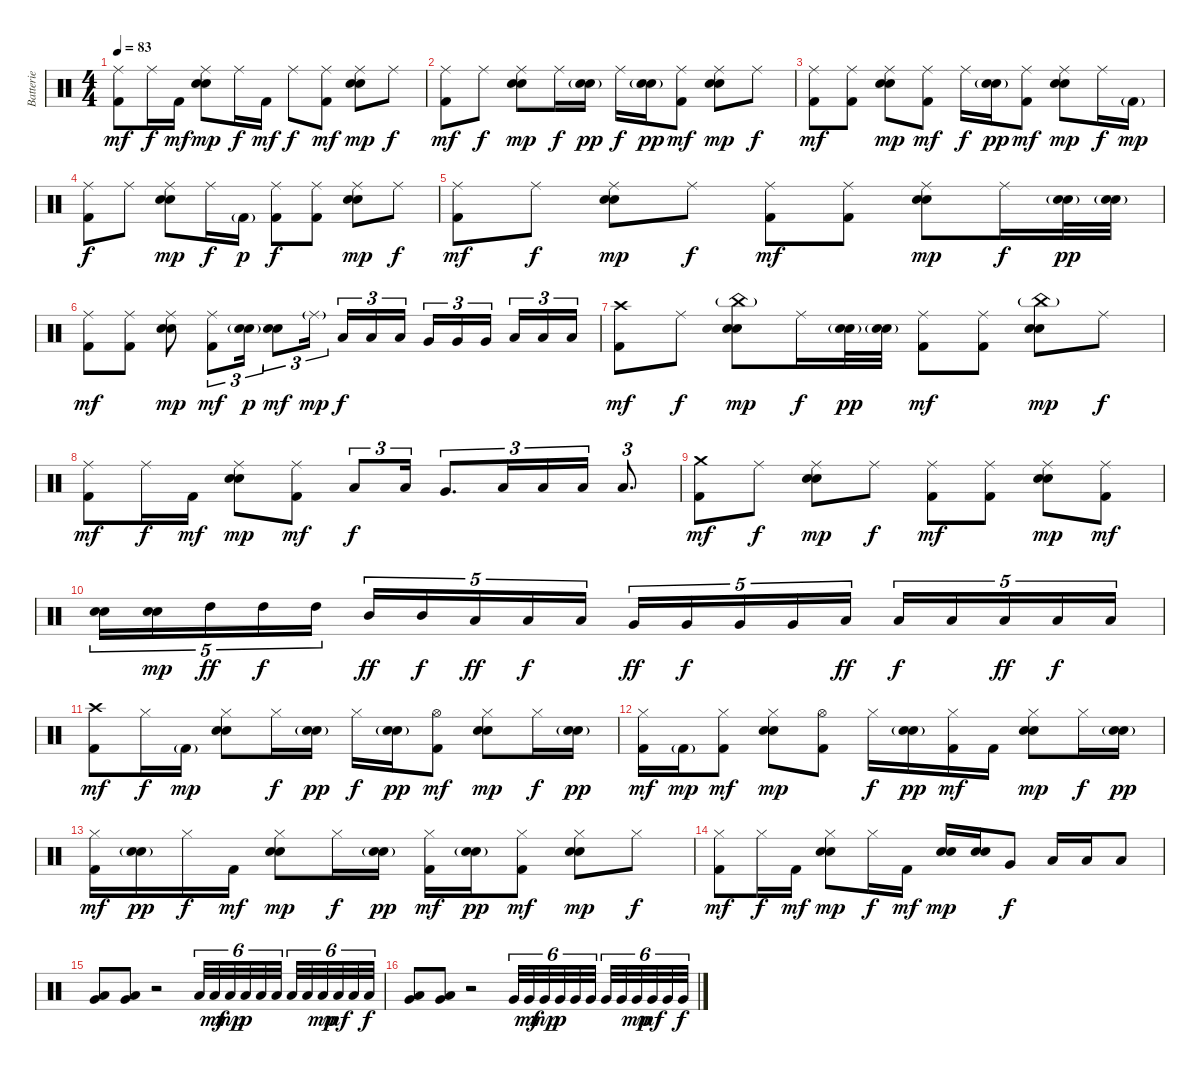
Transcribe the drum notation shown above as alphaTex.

\track ("Batterie" "Batterie") {instrument percussion}
\staff {score}
\articulation defaults
\ts (4 4)
\tempo 83
\clef neutral
\ks c
("Ride (middle)" "Kick (hit) 2").8{dy mf} "Ride (middle)".16{dy f} "Kick (hit) 2".16{dy mf} ("Ride (middle)" "Electric Snare (hit)" "Snare (hit) 2").8{dy mp} "Ride (middle)".16{dy f} "Kick (hit) 2".16{dy mf} "Ride (middle)".8{dy f} ("Ride (middle)" "Kick (hit) 2").8{dy mf} ("Ride (middle)" "Electric Snare (hit)" "Snare (hit) 2").8{dy mp} "Ride (middle)".8{dy f} |
("Ride (middle)" "Kick (hit) 2").8{dy mf} "Ride (middle)".8{dy f} ("Ride (middle)" "Electric Snare (hit)" "Snare (hit) 2").8{dy mp} "Ride (middle)".16{dy f} ("Electric Snare (hit)"{g} "Snare (hit) 2"{g}).16{dy pp} "Ride (middle)".16{dy f} ("Electric Snare (hit)"{g} "Snare (hit) 2"{g}).16{dy pp} ("Ride (middle)" "Kick (hit) 2").8{dy mf} ("Ride (middle)" "Electric Snare (hit)" "Snare (hit) 2").8{dy mp} "Ride (middle)".8{dy f} |
("Ride (middle)" "Kick (hit) 2").8{dy mf} ("Ride (middle)" "Kick (hit) 2").8 ("Ride (middle)" "Electric Snare (hit)" "Snare (hit) 2").8{dy mp} ("Ride (middle)" "Kick (hit) 2").8{dy mf} "Ride (middle)".16{dy f} ("Electric Snare (hit)"{g} "Snare (hit) 2"{g}).16{dy pp} ("Ride (middle)" "Kick (hit) 2").8{dy mf} ("Ride (middle)" "Electric Snare (hit)" "Snare (hit) 2").8{dy mp} "Ride (middle)".16{dy f} "Kick (hit) 2"{g}.16{dy mp} |
("Ride (middle)" "Kick (hit) 2").8{dy f} "Ride (middle)".8 ("Ride (middle)" "Electric Snare (hit)" "Snare (hit) 2").8{dy mp} "Ride (middle)".16{dy f} "Kick (hit) 2"{g}.16{dy p} ("Ride (middle)" "Kick (hit) 2").8{dy f} ("Ride (middle)" "Kick (hit) 2").8 ("Ride (middle)" "Electric Snare (hit)" "Snare (hit) 2").8{dy mp} "Ride (middle)".8{dy f} |
("Ride (middle)" "Kick (hit) 2").8{dy mf} "Ride (middle)".8{dy f} ("Ride (middle)" "Electric Snare (hit)" "Snare (hit) 2").8{dy mp} "Ride (middle)".8{dy f} ("Ride (middle)" "Kick (hit) 2").8{dy mf} ("Ride (middle)" "Kick (hit) 2").8 ("Ride (middle)" "Electric Snare (hit)" "Snare (hit) 2").8{dy mp} "Ride (middle)".16{dy f} ("Electric Snare (hit)"{g} "Snare (hit) 2"{g}).32{dy pp} ("Electric Snare (hit)"{g} "Snare (hit) 2"{g}).32 |
("Ride (middle)" "Kick (hit) 2").8{dy mf} ("Ride (middle)" "Kick (hit) 2").8 ("Ride (middle)" "Electric Snare (hit)" "Snare (hit) 2").8{dy mp} ("Ride (middle)" "Kick (hit) 2").8{tu (3 2) dy mf} ("Electric Snare (hit)"{g} "Snare (hit) 2"{g}).16{tu (3 2) dy p} ("Electric Snare (hit)" "Snare (hit) 2").8{tu (3 2) dy mf} "Ride (middle)"{g}.16{tu (3 2) dy mp} "Low Tom (hit)".16{tu (3 2) dy f} "Low Tom (hit)".16{tu (3 2)} "Low Tom (hit)".16{tu (3 2)} "Very Low Tom (hit)".16{tu (3 2)} "Very Low Tom (hit)".16{tu (3 2)} "Very Low Tom (hit)".16{tu (3 2)} "Low Floor Tom (hit)".16{tu (3 2)} "Low Floor Tom (hit)".16{tu (3 2)} "Low Floor Tom (hit)".16{tu (3 2)} |
("Crash high (hit)" "Kick (hit) 2").8{dy mf} "Ride (middle)".8{dy f} ("China (hit)"{g} "Electric Snare (hit)" "Snare (hit) 2").8{dy mp} "Ride (middle)".16{dy f} ("Electric Snare (hit)"{g} "Snare (hit) 2"{g}).32{dy pp} ("Electric Snare (hit)"{g} "Snare (hit) 2"{g}).32 ("Ride (middle)" "Kick (hit) 2").8{dy mf} ("Ride (middle)" "Kick (hit) 2").8 ("China (hit)"{g} "Electric Snare (hit)" "Snare (hit) 2").8{dy mp} "Ride (middle)".8{dy f} |
("Ride (middle)" "Kick (hit) 2").8{dy mf} "Ride (middle)".16{dy f} "Kick (hit) 2".16{dy mf} ("Ride (middle)" "Electric Snare (hit)" "Snare (hit) 2").8{dy mp} ("Ride (middle)" "Kick (hit) 2").8{dy mf} "Low Tom (hit)".8{tu (3 2) dy f} "Low Tom (hit)".16{tu (3 2)} "Very Low Tom (hit)".8{d tu (3 2)} "Low Floor Tom (hit)".16{tu (3 2)} "Low Floor Tom (hit)".16{tu (3 2)} "Low Floor Tom (hit)".16{tu (3 2)} "Low Floor Tom (hit)".8{d tu (3 2)} |
("Crash medium (hit)" "Kick (hit) 2").8{dy mf} "Ride (middle)".8{dy f} ("Ride (middle)" "Electric Snare (hit)" "Snare (hit) 2").8{dy mp} "Ride (middle)".8{dy f} ("Ride (middle)" "Kick (hit) 2").8{dy mf} ("Ride (middle)" "Kick (hit) 2").8 ("Ride (middle)" "Electric Snare (hit)" "Snare (hit) 2").8{dy mp} ("Ride (middle)" "Kick (hit) 2").8{dy mf} |
("Electric Snare (hit)" "Snare (hit) 2").16{tu (5 4)} ("Electric Snare (hit)" "Snare (hit) 2").16{tu (5 4) dy mp} "High Tom (hit)".16{tu (5 4) dy ff} "High Tom (hit)".16{tu (5 4) dy f} "High Tom (hit)".16{tu (5 4)} "Mid Tom (hit)".16{tu (5 4) dy ff} "Mid Tom (hit)".16{tu (5 4) dy f} "Low Tom (hit)".16{tu (5 4) dy ff} "Low Tom (hit)".16{tu (5 4) dy f} "Low Tom (hit)".16{tu (5 4)} "Very Low Tom (hit)".16{tu (5 4) dy ff} "Very Low Tom (hit)".16{tu (5 4) dy f} "Very Low Tom (hit)".16{tu (5 4)} "Very Low Tom (hit)".16{tu (5 4)} "Low Floor Tom (hit)".16{tu (5 4) dy ff} "Low Floor Tom (hit)".16{tu (5 4) dy f} "Low Floor Tom (hit)".16{tu (5 4)} "Low Floor Tom (hit)".16{tu (5 4) dy ff} "Low Floor Tom (hit)".16{tu (5 4) dy f} "Low Floor Tom (hit)".16{tu (5 4)} |
("Crash high (hit)" "Kick (hit) 2").8{dy mf} "Hi-Hat (closed)".16{dy f} "Kick (hit) 2"{g}.16{dy mp} ("Hi-Hat (closed)" "Electric Snare (hit)" "Snare (hit) 2").8 "Hi-Hat (closed)".16{dy f} ("Electric Snare (hit)"{g} "Snare (hit) 2"{g}).16{dy pp} "Hi-Hat (closed)".16{dy f} ("Electric Snare (hit)"{g} "Snare (hit) 2"{g}).16{dy pp} ("Hi-Hat (open)" "Kick (hit) 2").8{dy mf} ("Hi-Hat (closed)" "Electric Snare (hit)" "Snare (hit) 2").8{dy mp} "Hi-Hat (closed)".16{dy f} ("Electric Snare (hit)"{g} "Snare (hit) 2"{g}).16{dy pp} |
("Hi-Hat (closed)" "Kick (hit) 2").16{dy mf} "Kick (hit) 2"{g}.16{dy mp} ("Hi-Hat (closed)" "Kick (hit) 2").8{dy mf} ("Hi-Hat (closed)" "Electric Snare (hit)" "Snare (hit) 2").8{dy mp} ("Hi-Hat (open)" "Kick (hit) 2").8 "Hi-Hat (closed)".16{dy f} ("Electric Snare (hit)"{g} "Snare (hit) 2"{g}).16{dy pp} ("Hi-Hat (closed)" "Kick (hit) 2").16{dy mf} "Kick (hit) 2".16 ("Hi-Hat (closed)" "Electric Snare (hit)" "Snare (hit) 2").8{dy mp} "Hi-Hat (closed)".16{dy f} ("Electric Snare (hit)"{g} "Snare (hit) 2"{g}).16{dy pp} |
("Hi-Hat (closed)" "Kick (hit) 2").16{dy mf} ("Electric Snare (hit)"{g} "Snare (hit) 2"{g}).16{dy pp} "Hi-Hat (closed)".16{dy f} "Kick (hit) 2".16{dy mf} ("Hi-Hat (closed)" "Electric Snare (hit)" "Snare (hit) 2").8{dy mp} "Hi-Hat (closed)".16{dy f} ("Electric Snare (hit)"{g} "Snare (hit) 2"{g}).16{dy pp} ("Hi-Hat (closed)" "Kick (hit) 2").16{dy mf} ("Electric Snare (hit)"{g} "Snare (hit) 2"{g}).16{dy pp} ("Hi-Hat (closed)" "Kick (hit) 2").8{dy mf} ("Hi-Hat (closed)" "Electric Snare (hit)" "Snare (hit) 2").8{dy mp} "Hi-Hat (closed)".8{dy f} |
("Hi-Hat (closed)" "Kick (hit) 2").8{dy mf} "Hi-Hat (closed)".16{dy f} "Kick (hit) 2".16{dy mf} ("Hi-Hat (closed)" "Electric Snare (hit)" "Snare (hit) 2").8{dy mp} "Hi-Hat (closed)".16{dy f} "Kick (hit) 2".16{dy mf} ("Electric Snare (hit)" "Snare (hit) 2").16{dy mp} ("Electric Snare (hit)" "Snare (hit) 2").16 "Very Low Tom (hit)".8{dy f} "Low Floor Tom (hit)".16 "Low Floor Tom (hit)".16 "Low Floor Tom (hit)".8 |
("Very Low Tom (hit)" "Low Floor Tom (hit)").8 ("Very Low Tom (hit)" "Low Floor Tom (hit)").8 r.2 "Low Floor Tom (hit)".32{tu (6 4)} "Low Floor Tom (hit)".32{tu (6 4) dy mf} "Low Floor Tom (hit)".32{tu (6 4) dy mp} "Low Floor Tom (hit)".32{tu (6 4) dy p} "Low Floor Tom (hit)".32{tu (6 4)} "Low Floor Tom (hit)".32{tu (6 4)} "Low Floor Tom (hit)".32{tu (6 4)} "Low Floor Tom (hit)".32{tu (6 4)} "Low Floor Tom (hit)".32{tu (6 4) dy mp} "Low Floor Tom (hit)".32{tu (6 4) dy mf} "Low Floor Tom (hit)".32{tu (6 4)} "Low Floor Tom (hit)".32{tu (6 4) dy f} |
("Very Low Tom (hit)" "Low Floor Tom (hit)").8 ("Very Low Tom (hit)" "Low Floor Tom (hit)").8 r.2 "Very Low Tom (hit)".32{tu (6 4)} "Very Low Tom (hit)".32{tu (6 4) dy mf} "Very Low Tom (hit)".32{tu (6 4) dy mp} "Very Low Tom (hit)".32{tu (6 4) dy p} "Very Low Tom (hit)".32{tu (6 4)} "Very Low Tom (hit)".32{tu (6 4)} "Very Low Tom (hit)".32{tu (6 4)} "Very Low Tom (hit)".32{tu (6 4)} "Very Low Tom (hit)".32{tu (6 4) dy mp} "Very Low Tom (hit)".32{tu (6 4) dy mf} "Very Low Tom (hit)".32{tu (6 4)} "Very Low Tom (hit)".32{tu (6 4) dy f}
